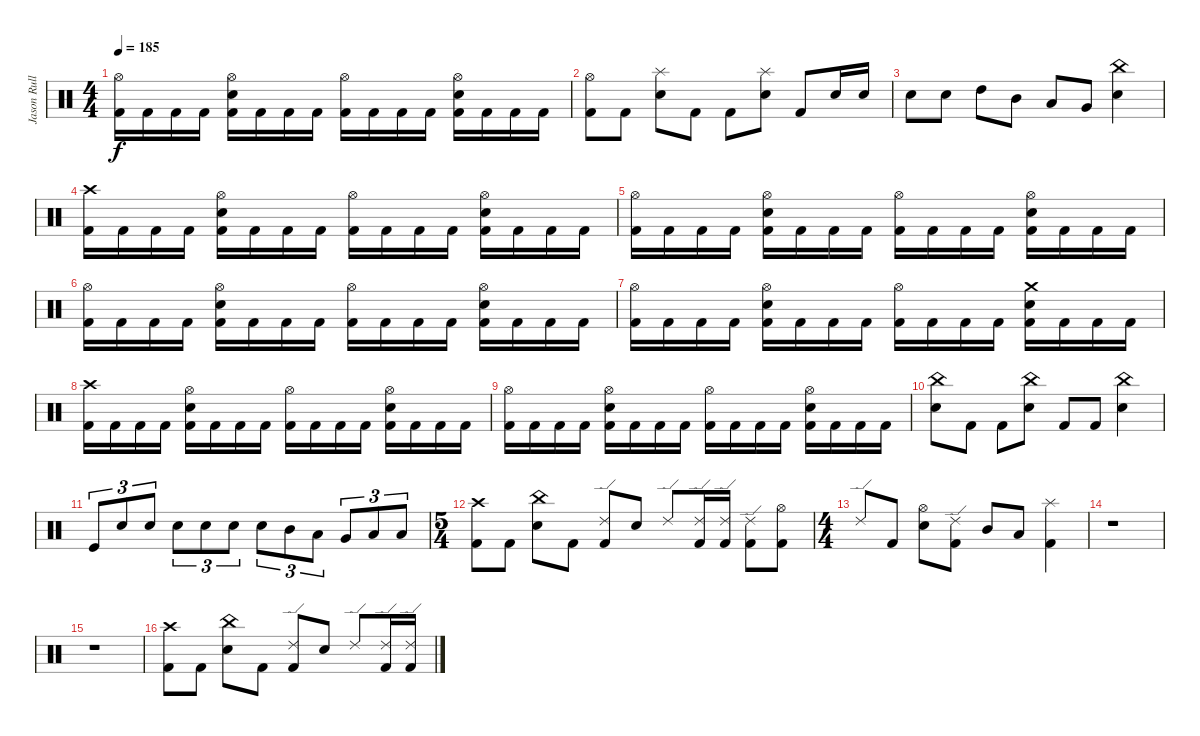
\track ("Jason Rullo" "Jason Rull") {instrument percussion}
\staff {score}
\articulation defaults
\ts (4 4)
\tempo 185
\clef neutral
\ks c
("Hi-Hat (open)" "Kick (hit) 2").16{dy f} "Kick (hit) 2".16 "Kick (hit) 2".16 "Kick (hit) 2".16 ("Hi-Hat (open)" "Snare (hit) 2" "Kick (hit) 2").16 "Kick (hit) 2".16 "Kick (hit) 2".16 "Kick (hit) 2".16 ("Hi-Hat (open)" "Kick (hit) 2").16 "Kick (hit) 2".16 "Kick (hit) 2".16 "Kick (hit) 2".16 ("Hi-Hat (open)" "Snare (hit) 2" "Kick (hit) 2").16 "Kick (hit) 2".16 "Kick (hit) 2".16 "Kick (hit) 2".16 |
("Hi-Hat (open)" "Kick (hit) 2").8 "Kick (hit) 2".8 ("Splash (hit)" "Snare (hit) 2").8 "Kick (hit) 2".8 "Kick (hit) 2".8 ("Splash (hit)" "Snare (hit) 2").8 "Kick (hit) 2".8 "Snare (hit) 2".16 "Snare (hit) 2".16 |
"Snare (hit) 2".8 "Snare (hit) 2".8 "High Tom (hit)".8 "Mid Tom (hit)".8 "Low Tom (hit)".8 "Very Low Tom (hit)".8 ("China (hit)" "Snare (hit) 2").4 |
("Crash high (hit)" "Kick (hit) 2").16 "Kick (hit) 2".16 "Kick (hit) 2".16 "Kick (hit) 2".16 ("Hi-Hat (open)" "Snare (hit) 2" "Kick (hit) 2").16 "Kick (hit) 2".16 "Kick (hit) 2".16 "Kick (hit) 2".16 ("Hi-Hat (open)" "Kick (hit) 2").16 "Kick (hit) 2".16 "Kick (hit) 2".16 "Kick (hit) 2".16 ("Hi-Hat (open)" "Snare (hit) 2" "Kick (hit) 2").16 "Kick (hit) 2".16 "Kick (hit) 2".16 "Kick (hit) 2".16 |
("Hi-Hat (open)" "Kick (hit) 2").16 "Kick (hit) 2".16 "Kick (hit) 2".16 "Kick (hit) 2".16 ("Hi-Hat (open)" "Snare (hit) 2" "Kick (hit) 2").16 "Kick (hit) 2".16 "Kick (hit) 2".16 "Kick (hit) 2".16 ("Hi-Hat (open)" "Kick (hit) 2").16 "Kick (hit) 2".16 "Kick (hit) 2".16 "Kick (hit) 2".16 ("Hi-Hat (open)" "Snare (hit) 2" "Kick (hit) 2").16 "Kick (hit) 2".16 "Kick (hit) 2".16 "Kick (hit) 2".16 |
("Hi-Hat (open)" "Kick (hit) 2").16 "Kick (hit) 2".16 "Kick (hit) 2".16 "Kick (hit) 2".16 ("Hi-Hat (open)" "Snare (hit) 2" "Kick (hit) 2").16 "Kick (hit) 2".16 "Kick (hit) 2".16 "Kick (hit) 2".16 ("Hi-Hat (open)" "Kick (hit) 2").16 "Kick (hit) 2".16 "Kick (hit) 2".16 "Kick (hit) 2".16 ("Hi-Hat (open)" "Snare (hit) 2" "Kick (hit) 2").16 "Kick (hit) 2".16 "Kick (hit) 2".16 "Kick (hit) 2".16 |
("Hi-Hat (open)" "Kick (hit) 2").16 "Kick (hit) 2".16 "Kick (hit) 2".16 "Kick (hit) 2".16 ("Hi-Hat (open)" "Snare (hit) 2" "Kick (hit) 2").16 "Kick (hit) 2".16 "Kick (hit) 2".16 "Kick (hit) 2".16 ("Hi-Hat (open)" "Kick (hit) 2").16 "Kick (hit) 2".16 "Kick (hit) 2".16 "Kick (hit) 2".16 ("Crash medium (hit)" "Snare (hit) 2" "Kick (hit) 2").16 "Kick (hit) 2".16 "Kick (hit) 2".16 "Kick (hit) 2".16 |
("Crash high (hit)" "Kick (hit) 2").16 "Kick (hit) 2".16 "Kick (hit) 2".16 "Kick (hit) 2".16 ("Hi-Hat (open)" "Snare (hit) 2" "Kick (hit) 2").16 "Kick (hit) 2".16 "Kick (hit) 2".16 "Kick (hit) 2".16 ("Hi-Hat (open)" "Kick (hit) 2").16 "Kick (hit) 2".16 "Kick (hit) 2".16 "Kick (hit) 2".16 ("Hi-Hat (open)" "Snare (hit) 2" "Kick (hit) 2").16 "Kick (hit) 2".16 "Kick (hit) 2".16 "Kick (hit) 2".16 |
("Hi-Hat (open)" "Kick (hit) 2").16 "Kick (hit) 2".16 "Kick (hit) 2".16 "Kick (hit) 2".16 ("Hi-Hat (open)" "Snare (hit) 2" "Kick (hit) 2").16 "Kick (hit) 2".16 "Kick (hit) 2".16 "Kick (hit) 2".16 ("Hi-Hat (open)" "Kick (hit) 2").16 "Kick (hit) 2".16 "Kick (hit) 2".16 "Kick (hit) 2".16 ("Hi-Hat (open)" "Snare (hit) 2" "Kick (hit) 2").16 "Kick (hit) 2".16 "Kick (hit) 2".16 "Kick (hit) 2".16 |
("China (hit)" "Snare (hit) 2").8 "Kick (hit) 2".8 "Kick (hit) 2".8 ("China (hit)" "Snare (hit) 2").8 "Kick (hit) 2".8 "Kick (hit) 2".8 ("China (hit)" "Snare (hit) 2").4 |
"Kick (hit)".8{tu (3 2)} "Snare (hit) 2".8{tu (3 2)} "Snare (hit) 2".8{tu (3 2)} "Snare (hit) 2".8{tu (3 2)} "Snare (hit) 2".8{tu (3 2)} "Snare (hit) 2".8{tu (3 2)} "Snare (hit) 2".8{tu (3 2)} "Mid Tom (hit)".8{tu (3 2)} "Low Tom (hit)".8{tu (3 2)} "Very Low Tom (hit)".8{tu (3 2)} "Low Floor Tom (hit)".8{tu (3 2)} "Low Floor Tom (hit)".8{tu (3 2)} |
\ts (5 4)
("Crash high (hit)" "Kick (hit) 2").8 "Kick (hit) 2".8 ("China (hit)" "Snare (hit) 2").8 "Kick (hit) 2".8 ("Ride (edge) 2" "Kick (hit) 2").8 "Snare (hit) 2".8 "Ride (edge) 2".8 ("Ride (edge) 2" "Kick (hit) 2").16 ("Ride (edge) 2" "Kick (hit) 2").16 ("Ride (edge) 2" "Kick (hit) 2").8 ("Hi-Hat (open)" "Kick (hit) 2").8 |
\ts (4 4)
"Ride (edge) 2".8 "Kick (hit) 2".8 ("Hi-Hat (open)" "Snare (hit) 2").8 ("Ride (edge) 2" "Kick (hit) 2").8 "Mid Tom (hit)".8 "Low Tom (hit)".8 ("Splash (hit)" "Kick (hit) 2").4 |
r.1 |
r.1 |
("Crash high (hit)" "Kick (hit) 2").8 "Kick (hit) 2".8 ("China (hit)" "Snare (hit) 2").8 "Kick (hit) 2".8 ("Ride (edge) 2" "Kick (hit) 2").8 "Snare (hit) 2".8 "Ride (edge) 2".8 ("Ride (edge) 2" "Kick (hit) 2").16 ("Ride (edge) 2" "Kick (hit) 2").16
